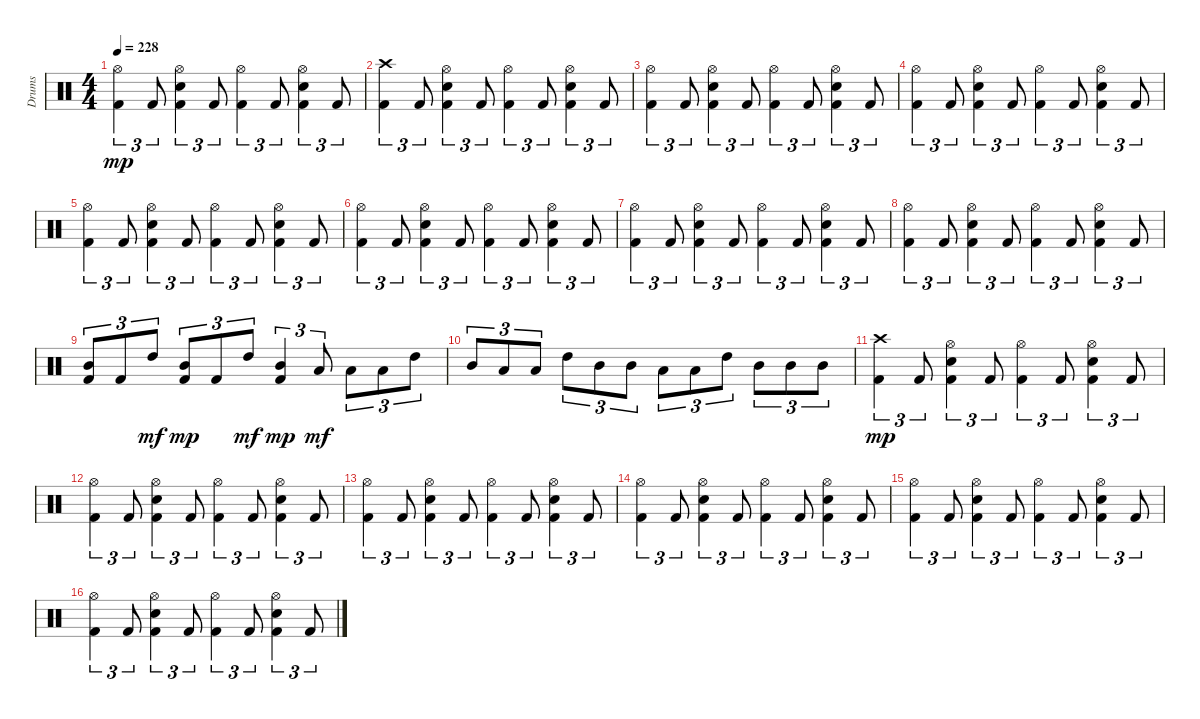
\track ("Drums" "Drums") {instrument percussion}
\staff {score}
\articulation defaults
\ts (4 4)
\tempo 228
\clef neutral
\ks c
("Hi-Hat (open)" "Kick (hit) 2").4{tu (3 2) dy mp} "Kick (hit) 2".8{tu (3 2)} ("Hi-Hat (open)" "Electric Snare (hit)" "Kick (hit) 2").4{tu (3 2)} "Kick (hit) 2".8{tu (3 2)} ("Hi-Hat (open)" "Kick (hit) 2").4{tu (3 2)} "Kick (hit) 2".8{tu (3 2)} ("Hi-Hat (open)" "Electric Snare (hit)" "Kick (hit) 2").4{tu (3 2)} "Kick (hit) 2".8{tu (3 2)} |
("Crash high (hit)" "Kick (hit) 2").4{tu (3 2)} "Kick (hit) 2".8{tu (3 2)} ("Hi-Hat (open)" "Electric Snare (hit)" "Kick (hit) 2").4{tu (3 2)} "Kick (hit) 2".8{tu (3 2)} ("Hi-Hat (open)" "Kick (hit) 2").4{tu (3 2)} "Kick (hit) 2".8{tu (3 2)} ("Hi-Hat (open)" "Electric Snare (hit)" "Kick (hit) 2").4{tu (3 2)} "Kick (hit) 2".8{tu (3 2)} |
("Hi-Hat (open)" "Kick (hit) 2").4{tu (3 2)} "Kick (hit) 2".8{tu (3 2)} ("Hi-Hat (open)" "Electric Snare (hit)" "Kick (hit) 2").4{tu (3 2)} "Kick (hit) 2".8{tu (3 2)} ("Hi-Hat (open)" "Kick (hit) 2").4{tu (3 2)} "Kick (hit) 2".8{tu (3 2)} ("Hi-Hat (open)" "Electric Snare (hit)" "Kick (hit) 2").4{tu (3 2)} "Kick (hit) 2".8{tu (3 2)} |
("Hi-Hat (open)" "Kick (hit) 2").4{tu (3 2)} "Kick (hit) 2".8{tu (3 2)} ("Hi-Hat (open)" "Electric Snare (hit)" "Kick (hit) 2").4{tu (3 2)} "Kick (hit) 2".8{tu (3 2)} ("Hi-Hat (open)" "Kick (hit) 2").4{tu (3 2)} "Kick (hit) 2".8{tu (3 2)} ("Hi-Hat (open)" "Electric Snare (hit)" "Kick (hit) 2").4{tu (3 2)} "Kick (hit) 2".8{tu (3 2)} |
("Hi-Hat (open)" "Kick (hit) 2").4{tu (3 2)} "Kick (hit) 2".8{tu (3 2)} ("Hi-Hat (open)" "Electric Snare (hit)" "Kick (hit) 2").4{tu (3 2)} "Kick (hit) 2".8{tu (3 2)} ("Hi-Hat (open)" "Kick (hit) 2").4{tu (3 2)} "Kick (hit) 2".8{tu (3 2)} ("Hi-Hat (open)" "Electric Snare (hit)" "Kick (hit) 2").4{tu (3 2)} "Kick (hit) 2".8{tu (3 2)} |
("Hi-Hat (open)" "Kick (hit) 2").4{tu (3 2)} "Kick (hit) 2".8{tu (3 2)} ("Hi-Hat (open)" "Electric Snare (hit)" "Kick (hit) 2").4{tu (3 2)} "Kick (hit) 2".8{tu (3 2)} ("Hi-Hat (open)" "Kick (hit) 2").4{tu (3 2)} "Kick (hit) 2".8{tu (3 2)} ("Hi-Hat (open)" "Electric Snare (hit)" "Kick (hit) 2").4{tu (3 2)} "Kick (hit) 2".8{tu (3 2)} |
("Hi-Hat (open)" "Kick (hit) 2").4{tu (3 2)} "Kick (hit) 2".8{tu (3 2)} ("Hi-Hat (open)" "Electric Snare (hit)" "Kick (hit) 2").4{tu (3 2)} "Kick (hit) 2".8{tu (3 2)} ("Hi-Hat (open)" "Kick (hit) 2").4{tu (3 2)} "Kick (hit) 2".8{tu (3 2)} ("Hi-Hat (open)" "Electric Snare (hit)" "Kick (hit) 2").4{tu (3 2)} "Kick (hit) 2".8{tu (3 2)} |
("Hi-Hat (open)" "Kick (hit) 2").4{tu (3 2)} "Kick (hit) 2".8{tu (3 2)} ("Hi-Hat (open)" "Electric Snare (hit)" "Kick (hit) 2").4{tu (3 2)} "Kick (hit) 2".8{tu (3 2)} ("Hi-Hat (open)" "Kick (hit) 2").4{tu (3 2)} "Kick (hit) 2".8{tu (3 2)} ("Hi-Hat (open)" "Electric Snare (hit)" "Kick (hit) 2").4{tu (3 2)} "Kick (hit) 2".8{tu (3 2)} |
("Mid Tom (hit)" "Kick (hit) 2").8{tu (3 2)} "Kick (hit) 2".8{tu (3 2)} "High Tom (hit)".8{tu (3 2) dy mf} ("Mid Tom (hit)" "Kick (hit) 2").8{tu (3 2) dy mp} "Kick (hit) 2".8{tu (3 2)} "High Tom (hit)".8{tu (3 2) dy mf} ("Mid Tom (hit)" "Kick (hit) 2").4{tu (3 2) dy mp} "Low Floor Tom (hit)".8{tu (3 2) dy mf} "Low Tom (hit)".8{tu (3 2)} "Low Tom (hit)".8{tu (3 2)} "High Tom (hit)".8{tu (3 2)} |
"Mid Tom (hit)".8{tu (3 2)} "Low Floor Tom (hit)".8{tu (3 2)} "Low Tom (hit)".8{tu (3 2)} "High Tom (hit)".8{tu (3 2)} "Mid Tom (hit)".8{tu (3 2)} "Mid Tom (hit)".8{tu (3 2)} "Low Floor Tom (hit)".8{tu (3 2)} "Low Tom (hit)".8{tu (3 2)} "High Tom (hit)".8{tu (3 2)} "Mid Tom (hit)".8{tu (3 2)} "Mid Tom (hit)".8{tu (3 2)} "Mid Tom (hit)".8{tu (3 2)} |
("Crash high (hit)" "Kick (hit) 2").4{tu (3 2) dy mp} "Kick (hit) 2".8{tu (3 2)} ("Hi-Hat (open)" "Electric Snare (hit)" "Kick (hit) 2").4{tu (3 2)} "Kick (hit) 2".8{tu (3 2)} ("Hi-Hat (open)" "Kick (hit) 2").4{tu (3 2)} "Kick (hit) 2".8{tu (3 2)} ("Hi-Hat (open)" "Electric Snare (hit)" "Kick (hit) 2").4{tu (3 2)} "Kick (hit) 2".8{tu (3 2)} |
("Hi-Hat (open)" "Kick (hit) 2").4{tu (3 2)} "Kick (hit) 2".8{tu (3 2)} ("Hi-Hat (open)" "Electric Snare (hit)" "Kick (hit) 2").4{tu (3 2)} "Kick (hit) 2".8{tu (3 2)} ("Hi-Hat (open)" "Kick (hit) 2").4{tu (3 2)} "Kick (hit) 2".8{tu (3 2)} ("Hi-Hat (open)" "Electric Snare (hit)" "Kick (hit) 2").4{tu (3 2)} "Kick (hit) 2".8{tu (3 2)} |
("Hi-Hat (open)" "Kick (hit) 2").4{tu (3 2)} "Kick (hit) 2".8{tu (3 2)} ("Hi-Hat (open)" "Electric Snare (hit)" "Kick (hit) 2").4{tu (3 2)} "Kick (hit) 2".8{tu (3 2)} ("Hi-Hat (open)" "Kick (hit) 2").4{tu (3 2)} "Kick (hit) 2".8{tu (3 2)} ("Hi-Hat (open)" "Electric Snare (hit)" "Kick (hit) 2").4{tu (3 2)} "Kick (hit) 2".8{tu (3 2)} |
("Hi-Hat (open)" "Kick (hit) 2").4{tu (3 2)} "Kick (hit) 2".8{tu (3 2)} ("Hi-Hat (open)" "Electric Snare (hit)" "Kick (hit) 2").4{tu (3 2)} "Kick (hit) 2".8{tu (3 2)} ("Hi-Hat (open)" "Kick (hit) 2").4{tu (3 2)} "Kick (hit) 2".8{tu (3 2)} ("Hi-Hat (open)" "Electric Snare (hit)" "Kick (hit) 2").4{tu (3 2)} "Kick (hit) 2".8{tu (3 2)} |
("Hi-Hat (open)" "Kick (hit) 2").4{tu (3 2)} "Kick (hit) 2".8{tu (3 2)} ("Hi-Hat (open)" "Electric Snare (hit)" "Kick (hit) 2").4{tu (3 2)} "Kick (hit) 2".8{tu (3 2)} ("Hi-Hat (open)" "Kick (hit) 2").4{tu (3 2)} "Kick (hit) 2".8{tu (3 2)} ("Hi-Hat (open)" "Electric Snare (hit)" "Kick (hit) 2").4{tu (3 2)} "Kick (hit) 2".8{tu (3 2)} |
("Hi-Hat (open)" "Kick (hit) 2").4{tu (3 2)} "Kick (hit) 2".8{tu (3 2)} ("Hi-Hat (open)" "Electric Snare (hit)" "Kick (hit) 2").4{tu (3 2)} "Kick (hit) 2".8{tu (3 2)} ("Hi-Hat (open)" "Kick (hit) 2").4{tu (3 2)} "Kick (hit) 2".8{tu (3 2)} ("Hi-Hat (open)" "Electric Snare (hit)" "Kick (hit) 2").4{tu (3 2)} "Kick (hit) 2".8{tu (3 2)}
